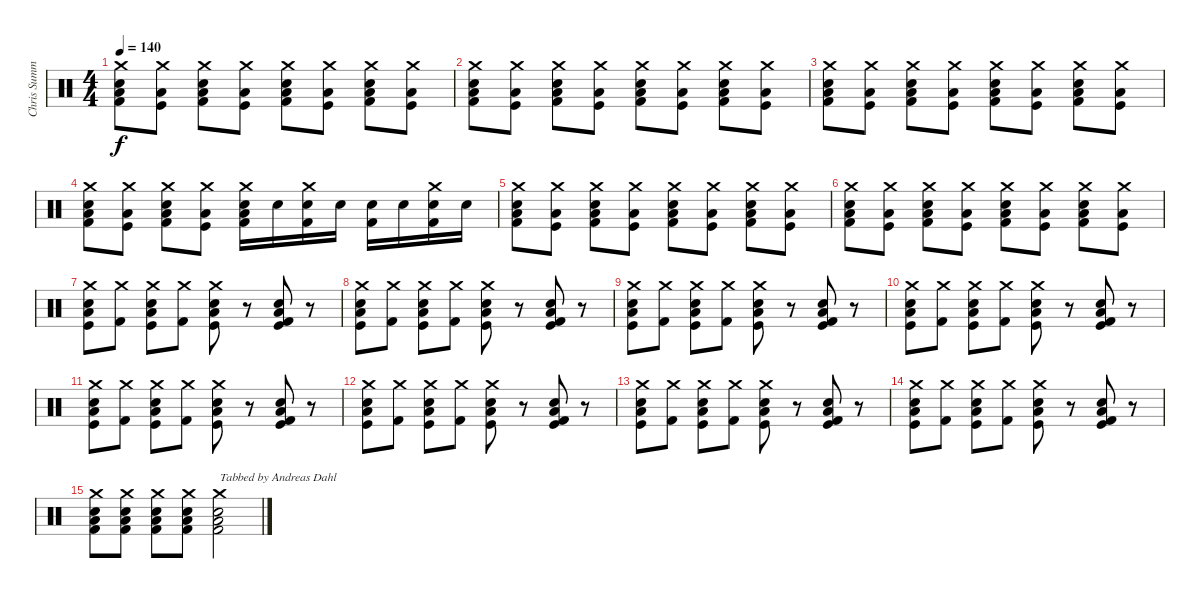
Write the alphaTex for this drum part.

\track ("Chris Summers" "Chris Summ") {instrument percussion}
\staff {score}
\articulation defaults
\ts (4 4)
\tempo 140
\clef neutral
\ks c
("Crash medium (hit)" "Snare (hit) 2" "Low Floor Tom (hit)" "Kick (hit) 2").8{dy f} ("Crash medium (hit)" "Low Floor Tom (hit)" "Kick (hit)").8 ("Crash medium (hit)" "Snare (hit) 2" "Low Floor Tom (hit)" "Kick (hit) 2").8 ("Crash medium (hit)" "Low Floor Tom (hit)" "Kick (hit)").8 ("Crash medium (hit)" "Snare (hit) 2" "Low Floor Tom (hit)" "Kick (hit) 2").8 ("Crash medium (hit)" "Low Floor Tom (hit)" "Kick (hit)").8 ("Crash medium (hit)" "Snare (hit) 2" "Low Floor Tom (hit)" "Kick (hit) 2").8 ("Crash medium (hit)" "Low Floor Tom (hit)" "Kick (hit)").8 |
("Crash medium (hit)" "Snare (hit) 2" "Low Floor Tom (hit)" "Kick (hit) 2").8 ("Crash medium (hit)" "Low Floor Tom (hit)" "Kick (hit)").8 ("Crash medium (hit)" "Snare (hit) 2" "Low Floor Tom (hit)" "Kick (hit) 2").8 ("Crash medium (hit)" "Low Floor Tom (hit)" "Kick (hit)").8 ("Crash medium (hit)" "Snare (hit) 2" "Low Floor Tom (hit)" "Kick (hit) 2").8 ("Crash medium (hit)" "Low Floor Tom (hit)" "Kick (hit)").8 ("Crash medium (hit)" "Snare (hit) 2" "Low Floor Tom (hit)" "Kick (hit) 2").8 ("Crash medium (hit)" "Low Floor Tom (hit)" "Kick (hit)").8 |
("Crash medium (hit)" "Snare (hit) 2" "Low Floor Tom (hit)" "Kick (hit) 2").8 ("Crash medium (hit)" "Low Floor Tom (hit)" "Kick (hit)").8 ("Crash medium (hit)" "Snare (hit) 2" "Low Floor Tom (hit)" "Kick (hit) 2").8 ("Crash medium (hit)" "Low Floor Tom (hit)" "Kick (hit)").8 ("Crash medium (hit)" "Snare (hit) 2" "Low Floor Tom (hit)" "Kick (hit) 2").8 ("Crash medium (hit)" "Low Floor Tom (hit)" "Kick (hit)").8 ("Crash medium (hit)" "Snare (hit) 2" "Low Floor Tom (hit)" "Kick (hit) 2").8 ("Crash medium (hit)" "Low Floor Tom (hit)" "Kick (hit)").8 |
("Crash medium (hit)" "Snare (hit) 2" "Low Floor Tom (hit)" "Kick (hit) 2").8 ("Crash medium (hit)" "Low Floor Tom (hit)" "Kick (hit)").8 ("Crash medium (hit)" "Snare (hit) 2" "Low Floor Tom (hit)" "Kick (hit) 2").8 ("Crash medium (hit)" "Low Floor Tom (hit)" "Kick (hit)").8 ("Crash medium (hit)" "Snare (hit) 2" "Low Floor Tom (hit)" "Kick (hit) 2").16 "Snare (hit) 2".16 ("Crash medium (hit)" "Snare (hit) 2" "Kick (hit) 2").16 "Snare (hit) 2".16 ("Snare (hit) 2" "Kick (hit) 2").16 "Snare (hit) 2".16 ("Crash medium (hit)" "Kick (hit) 2" "Snare (hit) 2").16 "Snare (hit) 2".16 |
("Crash medium (hit)" "Snare (hit) 2" "Low Floor Tom (hit)" "Kick (hit) 2").8 ("Crash medium (hit)" "Low Floor Tom (hit)" "Kick (hit)").8 ("Crash medium (hit)" "Snare (hit) 2" "Low Floor Tom (hit)" "Kick (hit) 2").8 ("Crash medium (hit)" "Low Floor Tom (hit)" "Kick (hit)").8 ("Crash medium (hit)" "Snare (hit) 2" "Low Floor Tom (hit)" "Kick (hit) 2").8 ("Crash medium (hit)" "Low Floor Tom (hit)" "Kick (hit)").8 ("Crash medium (hit)" "Snare (hit) 2" "Low Floor Tom (hit)" "Kick (hit) 2").8 ("Crash medium (hit)" "Low Floor Tom (hit)" "Kick (hit)").8 |
("Crash medium (hit)" "Snare (hit) 2" "Low Floor Tom (hit)" "Kick (hit) 2").8 ("Crash medium (hit)" "Low Floor Tom (hit)" "Kick (hit)").8 ("Crash medium (hit)" "Snare (hit) 2" "Low Floor Tom (hit)" "Kick (hit) 2").8 ("Crash medium (hit)" "Low Floor Tom (hit)" "Kick (hit)").8 ("Crash medium (hit)" "Snare (hit) 2" "Low Floor Tom (hit)" "Kick (hit) 2").8 ("Crash medium (hit)" "Low Floor Tom (hit)" "Kick (hit)").8 ("Crash medium (hit)" "Snare (hit) 2" "Low Floor Tom (hit)" "Kick (hit) 2").8 ("Crash medium (hit)" "Low Floor Tom (hit)" "Kick (hit)").8 |
("Crash medium (hit)" "Low Floor Tom (hit)" "Snare (hit) 2" "Kick (hit)").8 ("Crash medium (hit)" "Kick (hit) 2").8 ("Crash medium (hit)" "Low Floor Tom (hit)" "Snare (hit) 2" "Kick (hit)").8 ("Crash medium (hit)" "Kick (hit) 2").8 ("Crash medium (hit)" "Low Floor Tom (hit)" "Snare (hit) 2" "Kick (hit)").8 r.8 ("Kick (hit)" "Low Floor Tom (hit)" "Snare (hit) 2" "Kick (hit) 2").8 r.8 |
("Crash medium (hit)" "Low Floor Tom (hit)" "Snare (hit) 2" "Kick (hit)").8 ("Crash medium (hit)" "Kick (hit) 2").8 ("Crash medium (hit)" "Low Floor Tom (hit)" "Snare (hit) 2" "Kick (hit)").8 ("Crash medium (hit)" "Kick (hit) 2").8 ("Crash medium (hit)" "Low Floor Tom (hit)" "Snare (hit) 2" "Kick (hit)").8 r.8 ("Kick (hit)" "Low Floor Tom (hit)" "Snare (hit) 2" "Kick (hit) 2").8 r.8 |
("Crash medium (hit)" "Low Floor Tom (hit)" "Snare (hit) 2" "Kick (hit)").8 ("Crash medium (hit)" "Kick (hit) 2").8 ("Crash medium (hit)" "Low Floor Tom (hit)" "Snare (hit) 2" "Kick (hit)").8 ("Crash medium (hit)" "Kick (hit) 2").8 ("Crash medium (hit)" "Low Floor Tom (hit)" "Snare (hit) 2" "Kick (hit)").8 r.8 ("Kick (hit)" "Low Floor Tom (hit)" "Snare (hit) 2" "Kick (hit) 2").8 r.8 |
("Crash medium (hit)" "Low Floor Tom (hit)" "Snare (hit) 2" "Kick (hit)").8 ("Crash medium (hit)" "Kick (hit) 2").8 ("Crash medium (hit)" "Low Floor Tom (hit)" "Snare (hit) 2" "Kick (hit)").8 ("Crash medium (hit)" "Kick (hit) 2").8 ("Crash medium (hit)" "Low Floor Tom (hit)" "Snare (hit) 2" "Kick (hit)").8 r.8 ("Kick (hit)" "Low Floor Tom (hit)" "Snare (hit) 2" "Kick (hit) 2").8 r.8 |
("Crash medium (hit)" "Low Floor Tom (hit)" "Snare (hit) 2" "Kick (hit)").8 ("Crash medium (hit)" "Kick (hit) 2").8 ("Crash medium (hit)" "Low Floor Tom (hit)" "Snare (hit) 2" "Kick (hit)").8 ("Crash medium (hit)" "Kick (hit) 2").8 ("Crash medium (hit)" "Low Floor Tom (hit)" "Snare (hit) 2" "Kick (hit)").8 r.8 ("Kick (hit)" "Low Floor Tom (hit)" "Snare (hit) 2" "Kick (hit) 2").8 r.8 |
("Crash medium (hit)" "Low Floor Tom (hit)" "Snare (hit) 2" "Kick (hit)").8 ("Crash medium (hit)" "Kick (hit) 2").8 ("Crash medium (hit)" "Low Floor Tom (hit)" "Snare (hit) 2" "Kick (hit)").8 ("Crash medium (hit)" "Kick (hit) 2").8 ("Crash medium (hit)" "Low Floor Tom (hit)" "Snare (hit) 2" "Kick (hit)").8 r.8 ("Kick (hit)" "Low Floor Tom (hit)" "Snare (hit) 2" "Kick (hit) 2").8 r.8 |
("Crash medium (hit)" "Low Floor Tom (hit)" "Snare (hit) 2" "Kick (hit)").8 ("Crash medium (hit)" "Kick (hit) 2").8 ("Crash medium (hit)" "Low Floor Tom (hit)" "Snare (hit) 2" "Kick (hit)").8 ("Crash medium (hit)" "Kick (hit) 2").8 ("Crash medium (hit)" "Low Floor Tom (hit)" "Snare (hit) 2" "Kick (hit)").8 r.8 ("Kick (hit)" "Low Floor Tom (hit)" "Snare (hit) 2" "Kick (hit) 2").8 r.8 |
("Crash medium (hit)" "Low Floor Tom (hit)" "Snare (hit) 2" "Kick (hit)").8 ("Crash medium (hit)" "Kick (hit) 2").8 ("Crash medium (hit)" "Low Floor Tom (hit)" "Snare (hit) 2" "Kick (hit)").8 ("Crash medium (hit)" "Kick (hit) 2").8 ("Crash medium (hit)" "Low Floor Tom (hit)" "Snare (hit) 2" "Kick (hit)").8 r.8 ("Kick (hit)" "Low Floor Tom (hit)" "Snare (hit) 2" "Kick (hit) 2").8 r.8 |
("Crash medium (hit)" "Snare (hit) 2" "Low Floor Tom (hit)" "Kick (hit) 2").8 ("Crash medium (hit)" "Snare (hit) 2" "Low Floor Tom (hit)" "Kick (hit) 2").8 ("Crash medium (hit)" "Snare (hit) 2" "Low Floor Tom (hit)" "Kick (hit) 2").8 ("Crash medium (hit)" "Snare (hit) 2" "Low Floor Tom (hit)" "Kick (hit) 2").8 ("Crash medium (hit)" "Snare (hit) 2" "Low Floor Tom (hit)" "Kick (hit) 2").2{txt "Tabbed by Andreas Dahl"}
